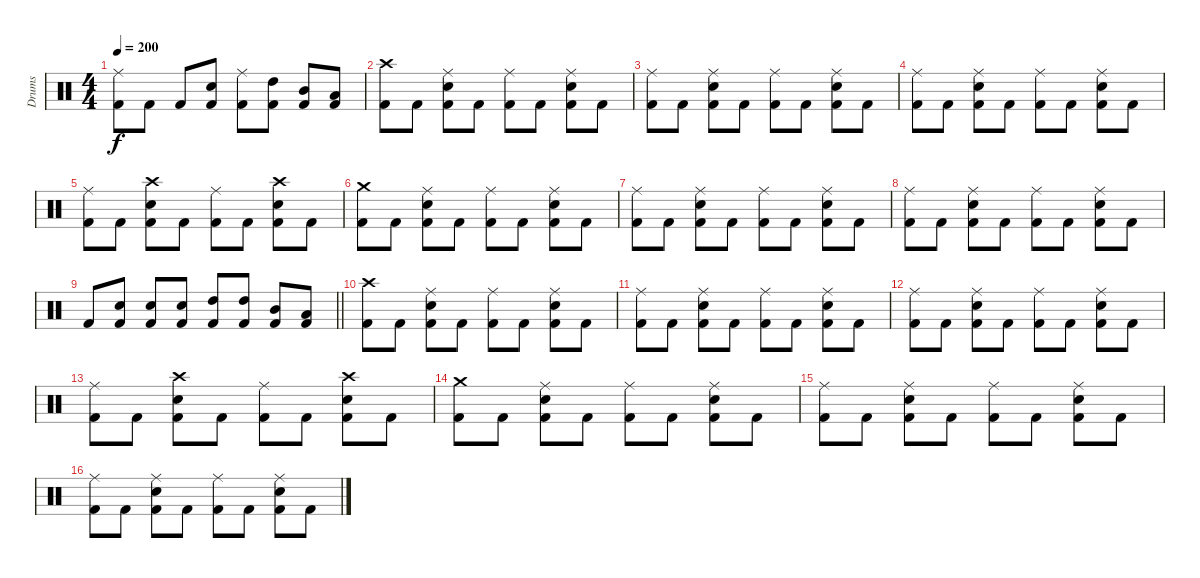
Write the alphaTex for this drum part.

\track ("Drums" "Drums") {instrument percussion}
\staff {score}
\articulation defaults
\ts (4 4)
\tempo 200
\clef neutral
\ks c
("Ride (middle)" "Kick (hit) 2").8{dy f} "Kick (hit) 2".8 "Kick (hit) 2".8 ("Snare (hit) 2" "Kick (hit) 2").8 ("Ride (middle)" "Kick (hit) 2").8 ("High Tom (hit)" "Kick (hit) 2").8 ("Mid Tom (hit)" "Kick (hit) 2").8 ("Low Tom (hit)" "Kick (hit) 2").8 |
("Crash high (hit)" "Kick (hit) 2").8 "Kick (hit) 2".8 ("Ride (middle)" "Snare (hit) 2" "Kick (hit) 2").8 "Kick (hit) 2".8 ("Ride (middle)" "Kick (hit) 2").8 "Kick (hit) 2".8 ("Ride (middle)" "Snare (hit) 2" "Kick (hit) 2").8 "Kick (hit) 2".8 |
("Ride (middle)" "Kick (hit) 2").8 "Kick (hit) 2".8 ("Ride (middle)" "Snare (hit) 2" "Kick (hit) 2").8 "Kick (hit) 2".8 ("Ride (middle)" "Kick (hit) 2").8 "Kick (hit) 2".8 ("Ride (middle)" "Snare (hit) 2" "Kick (hit) 2").8 "Kick (hit) 2".8 |
("Ride (middle)" "Kick (hit) 2").8 "Kick (hit) 2".8 ("Ride (middle)" "Snare (hit) 2" "Kick (hit) 2").8 "Kick (hit) 2".8 ("Ride (middle)" "Kick (hit) 2").8 "Kick (hit) 2".8 ("Ride (middle)" "Snare (hit) 2" "Kick (hit) 2").8 "Kick (hit) 2".8 |
("Ride (middle)" "Kick (hit) 2").8 "Kick (hit) 2".8 ("Crash high (hit)" "Snare (hit) 2" "Kick (hit) 2").8 "Kick (hit) 2".8 ("Ride (middle)" "Kick (hit) 2").8 "Kick (hit) 2".8 ("Crash high (hit)" "Snare (hit) 2" "Kick (hit) 2").8 "Kick (hit) 2".8 |
("Crash medium (hit)" "Kick (hit) 2").8 "Kick (hit) 2".8 ("Ride (middle)" "Snare (hit) 2" "Kick (hit) 2").8 "Kick (hit) 2".8 ("Ride (middle)" "Kick (hit) 2").8 "Kick (hit) 2".8 ("Ride (middle)" "Snare (hit) 2" "Kick (hit) 2").8 "Kick (hit) 2".8 |
("Ride (middle)" "Kick (hit) 2").8 "Kick (hit) 2".8 ("Ride (middle)" "Snare (hit) 2" "Kick (hit) 2").8 "Kick (hit) 2".8 ("Ride (middle)" "Kick (hit) 2").8 "Kick (hit) 2".8 ("Ride (middle)" "Snare (hit) 2" "Kick (hit) 2").8 "Kick (hit) 2".8 |
("Ride (middle)" "Kick (hit) 2").8 "Kick (hit) 2".8 ("Ride (middle)" "Snare (hit) 2" "Kick (hit) 2").8 "Kick (hit) 2".8 ("Ride (middle)" "Kick (hit) 2").8 "Kick (hit) 2".8 ("Ride (middle)" "Snare (hit) 2" "Kick (hit) 2").8 "Kick (hit) 2".8 |
\barLineRight lightlight "Kick (hit) 2".8
("Snare (hit) 2" "Kick (hit) 2").8 ("Snare (hit) 2" "Kick (hit) 2").8 ("Snare (hit) 2" "Kick (hit) 2").8 ("High Tom (hit)" "Kick (hit) 2").8 ("High Tom (hit)" "Kick (hit) 2").8 ("Mid Tom (hit)" "Kick (hit) 2").8 ("Low Tom (hit)" "Kick (hit) 2").8 |
\section ("" "")
("Crash high (hit)" "Kick (hit) 2").8 "Kick (hit) 2".8 ("Ride (middle)" "Snare (hit) 2" "Kick (hit) 2").8 "Kick (hit) 2".8 ("Ride (middle)" "Kick (hit) 2").8 "Kick (hit) 2".8 ("Ride (middle)" "Snare (hit) 2" "Kick (hit) 2").8 "Kick (hit) 2".8 |
("Ride (middle)" "Kick (hit) 2").8 "Kick (hit) 2".8 ("Ride (middle)" "Snare (hit) 2" "Kick (hit) 2").8 "Kick (hit) 2".8 ("Ride (middle)" "Kick (hit) 2").8 "Kick (hit) 2".8 ("Ride (middle)" "Snare (hit) 2" "Kick (hit) 2").8 "Kick (hit) 2".8 |
("Ride (middle)" "Kick (hit) 2").8 "Kick (hit) 2".8 ("Ride (middle)" "Snare (hit) 2" "Kick (hit) 2").8 "Kick (hit) 2".8 ("Ride (middle)" "Kick (hit) 2").8 "Kick (hit) 2".8 ("Ride (middle)" "Snare (hit) 2" "Kick (hit) 2").8 "Kick (hit) 2".8 |
("Ride (middle)" "Kick (hit) 2").8 "Kick (hit) 2".8 ("Crash high (hit)" "Snare (hit) 2" "Kick (hit) 2").8 "Kick (hit) 2".8 ("Ride (middle)" "Kick (hit) 2").8 "Kick (hit) 2".8 ("Crash high (hit)" "Snare (hit) 2" "Kick (hit) 2").8 "Kick (hit) 2".8 |
("Crash medium (hit)" "Kick (hit) 2").8 "Kick (hit) 2".8 ("Ride (middle)" "Snare (hit) 2" "Kick (hit) 2").8 "Kick (hit) 2".8 ("Ride (middle)" "Kick (hit) 2").8 "Kick (hit) 2".8 ("Ride (middle)" "Snare (hit) 2" "Kick (hit) 2").8 "Kick (hit) 2".8 |
("Ride (middle)" "Kick (hit) 2").8 "Kick (hit) 2".8 ("Ride (middle)" "Snare (hit) 2" "Kick (hit) 2").8 "Kick (hit) 2".8 ("Ride (middle)" "Kick (hit) 2").8 "Kick (hit) 2".8 ("Ride (middle)" "Snare (hit) 2" "Kick (hit) 2").8 "Kick (hit) 2".8 |
("Ride (middle)" "Kick (hit) 2").8 "Kick (hit) 2".8 ("Ride (middle)" "Snare (hit) 2" "Kick (hit) 2").8 "Kick (hit) 2".8 ("Ride (middle)" "Kick (hit) 2").8 "Kick (hit) 2".8 ("Ride (middle)" "Snare (hit) 2" "Kick (hit) 2").8 "Kick (hit) 2".8
